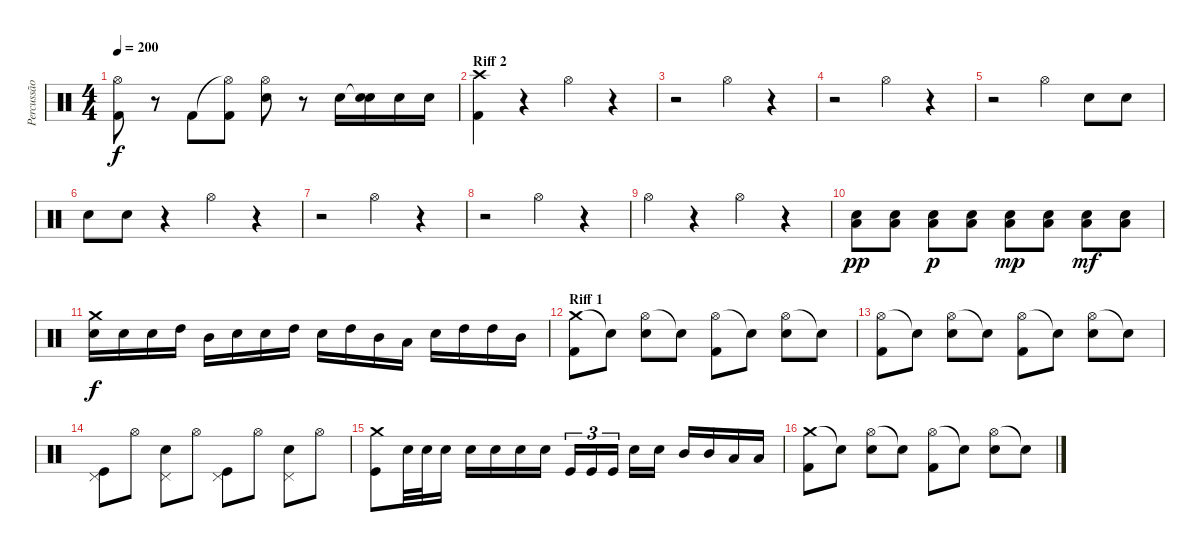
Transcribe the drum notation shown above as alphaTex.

\track ("Percussão" "Percussão") {instrument percussion}
\staff {score}
\articulation defaults
\ts (4 4)
\tempo 200
\clef neutral
\ks c
("Hi-Hat (open)" "Kick (hit) 2").8{dy f} r.8 "Kick (hit) 2".8 ("Hi-Hat (open)"{t} "Kick (hit) 2").8 ("Hi-Hat (open)" "Electric Snare (hit)").8 r.8 "Electric Snare (hit)".16 ("Snare (hit)"{t} "Electric Snare (hit)").16 "Electric Snare (hit)".16 "Electric Snare (hit)".16 |
\section ("" "Riff 2")
("Crash high (hit)" "Kick (hit) 2").4 r.4 "Hi-Hat (open)".4 r.4 |
r.2 "Hi-Hat (open)".4 r.4 |
r.2 "Hi-Hat (open)".4 r.4 |
r.2 "Hi-Hat (open)".4 "Electric Snare (hit)".8 "Electric Snare (hit)".8 |
"Electric Snare (hit)".8 "Electric Snare (hit)".8 r.4 "Hi-Hat (open)".4 r.4 |
r.2 "Hi-Hat (open)".4 r.4 |
r.2 "Hi-Hat (open)".4 r.4 |
"Hi-Hat (open)".4 r.4 "Hi-Hat (open)".4 r.4 |
("Electric Snare (hit)" "Low Floor Tom (hit)").8{dy pp} ("Electric Snare (hit)" "Low Floor Tom (hit)").8 ("Electric Snare (hit)" "Low Floor Tom (hit)").8{dy p} ("Electric Snare (hit)" "Low Floor Tom (hit)").8 ("Electric Snare (hit)" "Low Floor Tom (hit)").8{dy mp} ("Electric Snare (hit)" "Low Floor Tom (hit)").8 ("Electric Snare (hit)" "Low Floor Tom (hit)").8{dy mf} ("Electric Snare (hit)" "Low Floor Tom (hit)").8 |
("Crash medium (hit)" "Electric Snare (hit)").16{dy f} "Electric Snare (hit)".16 "Electric Snare (hit)".16 "High Tom (hit)".16 "Mid Tom (hit)".16 "Electric Snare (hit)".16 "Electric Snare (hit)".16 "High Tom (hit)".16 "Electric Snare (hit)".16 "High Tom (hit)".16 "Mid Tom (hit)".16 "Low Tom (hit)".16 "Electric Snare (hit)".16 "High Tom (hit)".16 "High Tom (hit)".16 "Mid Tom (hit)".16 |
\section ("" "Riff 1")
("Crash medium (hit)" "Kick (hit) 2").8 "Snare (hit)"{t}.8 ("Hi-Hat (open)" "Electric Snare (hit)").8 "Snare (hit)"{t}.8 ("Hi-Hat (open)" "Kick (hit) 2").8 "Snare (hit)"{t}.8 ("Hi-Hat (open)" "Electric Snare (hit)").8 "Snare (hit)"{t}.8 |
("Hi-Hat (open)" "Kick (hit) 2").8 "Snare (hit)"{t}.8 ("Hi-Hat (open)" "Electric Snare (hit)").8 "Snare (hit)"{t}.8 ("Hi-Hat (open)" "Kick (hit) 2").8 "Snare (hit)"{t}.8 ("Hi-Hat (open)" "Electric Snare (hit)").8 "Snare (hit)"{t}.8 |
("Pedal Hi-Hat (hit)" "Kick (hit)").8 "Hi-Hat (open)".8 ("Pedal Hi-Hat (hit)" "Electric Snare (hit)").8 "Hi-Hat (open)".8 ("Pedal Hi-Hat (hit)" "Kick (hit)").8 "Hi-Hat (open)".8 ("Pedal Hi-Hat (hit)" "Electric Snare (hit)").8 "Hi-Hat (open)".8 |
("Crash medium (hit)" "Kick (hit)").8 "Electric Snare (hit)".32 "Electric Snare (hit)".32 "Electric Snare (hit)".16 "Electric Snare (hit)".16 "Electric Snare (hit)".16 "Electric Snare (hit)".16 "Electric Snare (hit)".16 "Kick (hit)".16{tu (3 2)} "Kick (hit)".16{tu (3 2)} "Kick (hit)".16{tu (3 2)} "Electric Snare (hit)".16 "Electric Snare (hit)".16 "Mid Tom (hit)".16 "Mid Tom (hit)".16 "Low Tom (hit)".16 "Low Tom (hit)".16 |
("Crash medium (hit)" "Kick (hit) 2").8 "Snare (hit)"{t}.8 ("Hi-Hat (open)" "Electric Snare (hit)").8 "Snare (hit)"{t}.8 ("Hi-Hat (open)" "Kick (hit) 2").8 "Snare (hit)"{t}.8 ("Hi-Hat (open)" "Electric Snare (hit)").8 "Snare (hit)"{t}.8
